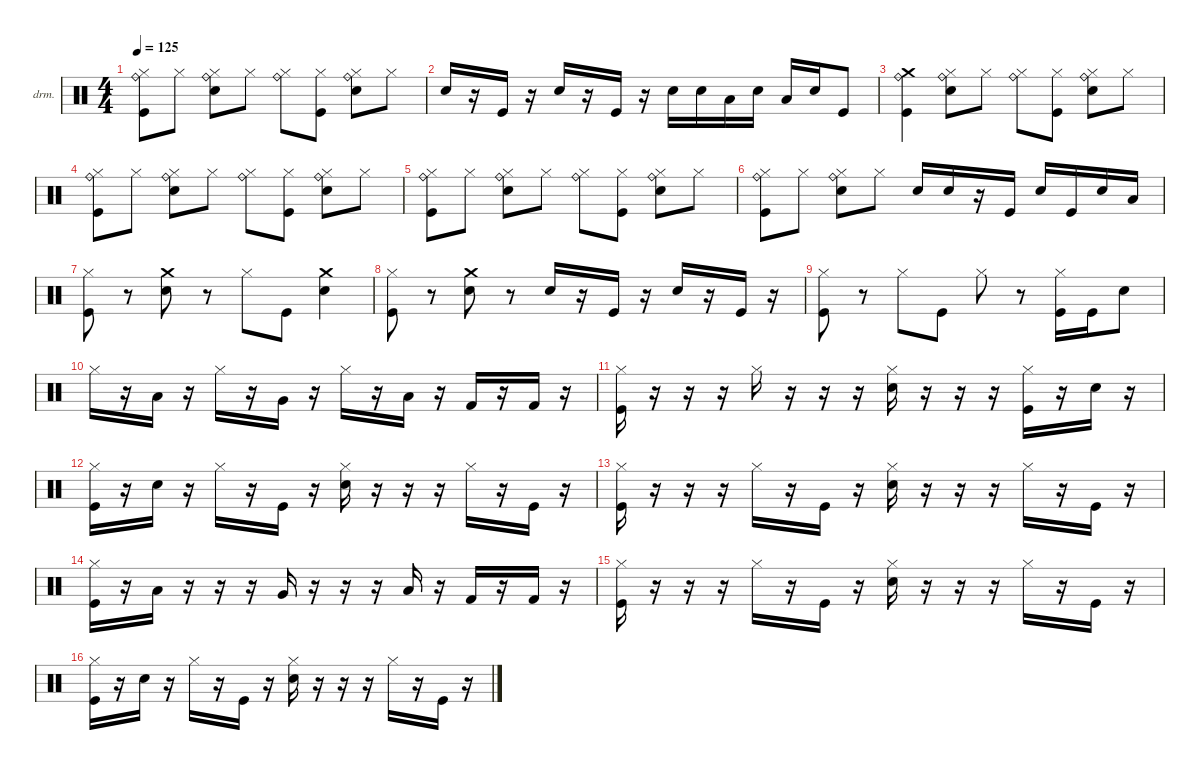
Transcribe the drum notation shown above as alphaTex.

\defaultSystemsLayout 4
\hideDynamics
\bracketExtendMode nobrackets
\firstSystemTrackNameOrientation horizontal
\otherSystemsTrackNameOrientation horizontal
\track ("Drum" "drm.") {instrument percussion}
\staff {score}
\articulation defaults
\ts (4 4)
\tempo 125
\clef neutral
\ks c
("Kick (hit)" "Hi-Hat (closed)" "Ride (bell)").8{dy f} "Hi-Hat (closed)".8 ("Snare (hit) 2" "Hi-Hat (closed)" "Ride (bell)").8 "Hi-Hat (closed)".8 ("Hi-Hat (closed)" "Ride (bell)").8 ("Kick (hit)" "Hi-Hat (closed)").8 ("Snare (hit) 2" "Hi-Hat (closed)" "Ride (bell)").8 "Hi-Hat (closed)".8 |
"Snare (hit) 2".16 r.16 "Kick (hit)".16 r.16 "Snare (hit) 2".16 r.16 "Kick (hit)".16 r.16 "Snare (hit) 2".16 "Snare (hit) 2".16 "Low Tom (hit)".16 "Snare (hit) 2".16 "Low Tom (hit)".16 "Snare (hit) 2".16 "Kick (hit)".8 |
("Kick (hit)" "Crash medium (hit)" "Ride (bell)").4 ("Snare (hit) 2" "Hi-Hat (closed)" "Ride (bell)").8 "Hi-Hat (closed)".8 ("Hi-Hat (closed)" "Ride (bell)").8 ("Kick (hit)" "Hi-Hat (closed)").8 ("Snare (hit) 2" "Hi-Hat (closed)" "Ride (bell)").8 "Hi-Hat (closed)".8 |
("Kick (hit)" "Hi-Hat (closed)" "Ride (bell)").8 "Hi-Hat (closed)".8 ("Snare (hit) 2" "Hi-Hat (closed)" "Ride (bell)").8 "Hi-Hat (closed)".8 ("Hi-Hat (closed)" "Ride (bell)").8 ("Kick (hit)" "Hi-Hat (closed)").8 ("Snare (hit) 2" "Hi-Hat (closed)" "Ride (bell)").8 "Hi-Hat (closed)".8 |
("Kick (hit)" "Hi-Hat (closed)" "Ride (bell)").8 "Hi-Hat (closed)".8 ("Snare (hit) 2" "Hi-Hat (closed)" "Ride (bell)").8 "Hi-Hat (closed)".8 ("Hi-Hat (closed)" "Ride (bell)").8 ("Kick (hit)" "Hi-Hat (closed)").8 ("Snare (hit) 2" "Hi-Hat (closed)" "Ride (bell)").8 "Hi-Hat (closed)".8 |
("Kick (hit)" "Hi-Hat (closed)" "Ride (bell)").8 "Hi-Hat (closed)".8 ("Snare (hit) 2" "Hi-Hat (closed)" "Ride (bell)").8 "Hi-Hat (closed)".8 "Snare (hit) 2".16 "Snare (hit) 2".16 r.16 "Kick (hit)".16 "Snare (hit) 2".16 "Kick (hit)".16 "Snare (hit) 2".16 "Low Tom (hit)".16 |
("Kick (hit)" "Hi-Hat (closed)").8 r.8 ("Snare (hit) 2" "Crash medium (hit)").8 r.8 "Hi-Hat (closed)".8 "Kick (hit)".8 ("Snare (hit) 2" "Crash medium (hit)").4 |
("Kick (hit)" "Hi-Hat (closed)").8 r.8 ("Snare (hit) 2" "Crash medium (hit)").8 r.8 "Snare (hit) 2".16 r.16 "Kick (hit)".16 r.16 "Snare (hit) 2".16 r.16 "Kick (hit)".16 r.16 |
("Kick (hit)" "Hi-Hat (closed)").8 r.8 "Hi-Hat (closed)".8 "Kick (hit)".8 "Hi-Hat (closed)".8 r.8 ("Kick (hit)" "Hi-Hat (closed)").16 "Kick (hit)".16 "Snare (hit) 2".8 |
"Hi-Hat (closed)".16 r.16 "Low Tom (hit)".16 r.16 "Hi-Hat (closed)".16 r.16 "Very Low Tom (hit)".16 r.16 "Hi-Hat (closed)".16 r.16 "Low Floor Tom (hit)".16 r.16 "Kick (hit) 2".16 r.16 "Kick (hit) 2".16 r.16 |
("Kick (hit)" "Hi-Hat (closed)").16 r.16 r.16 r.16 "Hi-Hat (closed)".16 r.16 r.16 r.16 ("Snare (hit) 2" "Hi-Hat (closed)").16 r.16 r.16 r.16 ("Kick (hit)" "Hi-Hat (closed)").16 r.16 "Snare (hit) 2".16 r.16 |
("Kick (hit)" "Hi-Hat (closed)").16 r.16 "Snare (hit) 2".16 r.16 "Hi-Hat (closed)".16 r.16 "Kick (hit)".16 r.16 ("Snare (hit) 2" "Hi-Hat (closed)").16 r.16 r.16 r.16 "Hi-Hat (closed)".16 r.16 "Kick (hit)".16 r.16 |
("Kick (hit)" "Hi-Hat (closed)").16 r.16 r.16 r.16 "Hi-Hat (closed)".16 r.16 "Kick (hit)".16 r.16 ("Snare (hit) 2" "Hi-Hat (closed)").16 r.16 r.16 r.16 "Hi-Hat (closed)".16 r.16 "Kick (hit)".16 r.16 |
("Kick (hit)" "Hi-Hat (closed)").16 r.16 "Low Tom (hit)".16 r.16 r.16 r.16 "Very Low Tom (hit)".16 r.16 r.16 r.16 "Low Floor Tom (hit)".16 r.16 "Kick (hit) 2".16 r.16 "Kick (hit) 2".16 r.16 |
("Kick (hit)" "Hi-Hat (closed)").16 r.16 r.16 r.16 "Hi-Hat (closed)".16 r.16 "Kick (hit)".16 r.16 ("Snare (hit) 2" "Hi-Hat (closed)").16 r.16 r.16 r.16 "Hi-Hat (closed)".16 r.16 "Kick (hit)".16 r.16 |
("Kick (hit)" "Hi-Hat (closed)").16 r.16 "Snare (hit) 2".16 r.16 "Hi-Hat (closed)".16 r.16 "Kick (hit)".16 r.16 ("Snare (hit) 2" "Hi-Hat (closed)").16 r.16 r.16 r.16 "Hi-Hat (closed)".16 r.16 "Kick (hit)".16 r.16
